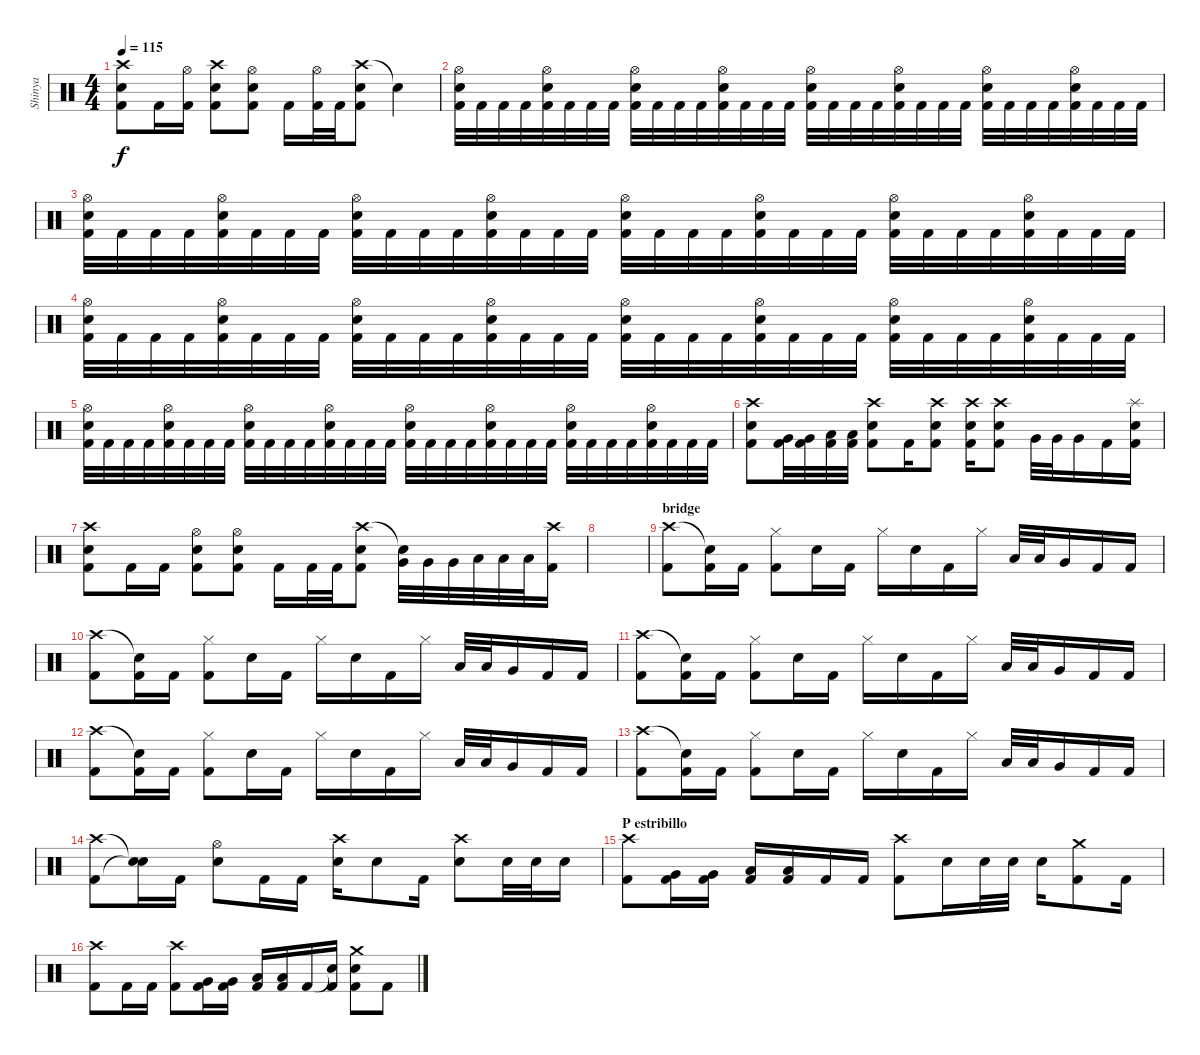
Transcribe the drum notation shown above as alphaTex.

\track ("Shinya" "Shinya") {instrument percussion}
\staff {score}
\articulation defaults
\ts (4 4)
\tempo 115
\clef neutral
\ks c
("Crash high (hit)" "Electric Snare (hit)" "Kick (hit) 2").8{dy f} "Kick (hit) 2".16 ("Hi-Hat (open)" "Kick (hit) 2").16 ("Crash high (hit)" "Electric Snare (hit)" "Kick (hit) 2").8 ("Hi-Hat (open)" "Electric Snare (hit)" "Kick (hit) 2").8 "Kick (hit) 2".16 ("Hi-Hat (open)" "Kick (hit) 2").32 "Kick (hit) 2".32 ("Crash high (hit)" "Electric Snare (hit)" "Kick (hit) 2").8 "Snare (hit)"{t}.4 |
("Hi-Hat (open)" "Electric Snare (hit)" "Kick (hit) 2").32 "Kick (hit) 2".32 "Kick (hit) 2".32 "Kick (hit) 2".32 ("Hi-Hat (open)" "Electric Snare (hit)" "Kick (hit) 2").32 "Kick (hit) 2".32 "Kick (hit) 2".32 "Kick (hit) 2".32 ("Hi-Hat (open)" "Electric Snare (hit)" "Kick (hit) 2").32 "Kick (hit) 2".32 "Kick (hit) 2".32 "Kick (hit) 2".32 ("Hi-Hat (open)" "Electric Snare (hit)" "Kick (hit) 2").32 "Kick (hit) 2".32 "Kick (hit) 2".32 "Kick (hit) 2".32 ("Hi-Hat (open)" "Electric Snare (hit)" "Kick (hit) 2").32 "Kick (hit) 2".32 "Kick (hit) 2".32 "Kick (hit) 2".32 ("Hi-Hat (open)" "Electric Snare (hit)" "Kick (hit) 2").32 "Kick (hit) 2".32 "Kick (hit) 2".32 "Kick (hit) 2".32 ("Hi-Hat (open)" "Electric Snare (hit)" "Kick (hit) 2").32 "Kick (hit) 2".32 "Kick (hit) 2".32 "Kick (hit) 2".32 ("Hi-Hat (open)" "Electric Snare (hit)" "Kick (hit) 2").32 "Kick (hit) 2".32 "Kick (hit) 2".32 "Kick (hit) 2".32 |
("Hi-Hat (open)" "Electric Snare (hit)" "Kick (hit) 2").32 "Kick (hit) 2".32 "Kick (hit) 2".32 "Kick (hit) 2".32 ("Hi-Hat (open)" "Electric Snare (hit)" "Kick (hit) 2").32 "Kick (hit) 2".32 "Kick (hit) 2".32 "Kick (hit) 2".32 ("Hi-Hat (open)" "Electric Snare (hit)" "Kick (hit) 2").32 "Kick (hit) 2".32 "Kick (hit) 2".32 "Kick (hit) 2".32 ("Hi-Hat (open)" "Electric Snare (hit)" "Kick (hit) 2").32 "Kick (hit) 2".32 "Kick (hit) 2".32 "Kick (hit) 2".32 ("Hi-Hat (open)" "Electric Snare (hit)" "Kick (hit) 2").32 "Kick (hit) 2".32 "Kick (hit) 2".32 "Kick (hit) 2".32 ("Hi-Hat (open)" "Electric Snare (hit)" "Kick (hit) 2").32 "Kick (hit) 2".32 "Kick (hit) 2".32 "Kick (hit) 2".32 ("Hi-Hat (open)" "Electric Snare (hit)" "Kick (hit) 2").32 "Kick (hit) 2".32 "Kick (hit) 2".32 "Kick (hit) 2".32 ("Hi-Hat (open)" "Electric Snare (hit)" "Kick (hit) 2").32 "Kick (hit) 2".32 "Kick (hit) 2".32 "Kick (hit) 2".32 |
("Hi-Hat (open)" "Electric Snare (hit)" "Kick (hit) 2").32 "Kick (hit) 2".32 "Kick (hit) 2".32 "Kick (hit) 2".32 ("Hi-Hat (open)" "Electric Snare (hit)" "Kick (hit) 2").32 "Kick (hit) 2".32 "Kick (hit) 2".32 "Kick (hit) 2".32 ("Hi-Hat (open)" "Electric Snare (hit)" "Kick (hit) 2").32 "Kick (hit) 2".32 "Kick (hit) 2".32 "Kick (hit) 2".32 ("Hi-Hat (open)" "Electric Snare (hit)" "Kick (hit) 2").32 "Kick (hit) 2".32 "Kick (hit) 2".32 "Kick (hit) 2".32 ("Hi-Hat (open)" "Electric Snare (hit)" "Kick (hit) 2").32 "Kick (hit) 2".32 "Kick (hit) 2".32 "Kick (hit) 2".32 ("Hi-Hat (open)" "Electric Snare (hit)" "Kick (hit) 2").32 "Kick (hit) 2".32 "Kick (hit) 2".32 "Kick (hit) 2".32 ("Hi-Hat (open)" "Electric Snare (hit)" "Kick (hit) 2").32 "Kick (hit) 2".32 "Kick (hit) 2".32 "Kick (hit) 2".32 ("Hi-Hat (open)" "Electric Snare (hit)" "Kick (hit) 2").32 "Kick (hit) 2".32 "Kick (hit) 2".32 "Kick (hit) 2".32 |
("Hi-Hat (open)" "Electric Snare (hit)" "Kick (hit) 2").32 "Kick (hit) 2".32 "Kick (hit) 2".32 "Kick (hit) 2".32 ("Hi-Hat (open)" "Electric Snare (hit)" "Kick (hit) 2").32 "Kick (hit) 2".32 "Kick (hit) 2".32 "Kick (hit) 2".32 ("Hi-Hat (open)" "Electric Snare (hit)" "Kick (hit) 2").32 "Kick (hit) 2".32 "Kick (hit) 2".32 "Kick (hit) 2".32 ("Hi-Hat (open)" "Electric Snare (hit)" "Kick (hit) 2").32 "Kick (hit) 2".32 "Kick (hit) 2".32 "Kick (hit) 2".32 ("Hi-Hat (open)" "Electric Snare (hit)" "Kick (hit) 2").32 "Kick (hit) 2".32 "Kick (hit) 2".32 "Kick (hit) 2".32 ("Hi-Hat (open)" "Electric Snare (hit)" "Kick (hit) 2").32 "Kick (hit) 2".32 "Kick (hit) 2".32 "Kick (hit) 2".32 ("Hi-Hat (open)" "Electric Snare (hit)" "Kick (hit) 2").32 "Kick (hit) 2".32 "Kick (hit) 2".32 "Kick (hit) 2".32 ("Hi-Hat (open)" "Electric Snare (hit)" "Kick (hit) 2").32 "Kick (hit) 2".32 "Kick (hit) 2".32 "Kick (hit) 2".32 |
("Crash high (hit)" "Electric Snare (hit)" "Kick (hit) 2").8 ("Very Low Tom (hit)" "Kick (hit) 2").32 ("Very Low Tom (hit)" "Kick (hit) 2").32 ("Low Floor Tom (hit)" "Kick (hit) 2").32 ("Low Floor Tom (hit)" "Kick (hit) 2").32 ("Crash high (hit)" "Electric Snare (hit)" "Kick (hit) 2").8 "Kick (hit) 2".16 ("Crash high (hit)" "Electric Snare (hit)" "Kick (hit) 2").8 ("Crash high (hit)" "Electric Snare (hit)" "Kick (hit) 2").16 ("Crash high (hit)" "Electric Snare (hit)" "Kick (hit) 2").8 "Very Low Tom (hit)".32 "Very Low Tom (hit)".32 "Very Low Tom (hit)".16 "Kick (hit) 2".16 ("Splash (hit)" "Electric Snare (hit)" "Kick (hit) 2").16 |
("Crash high (hit)" "Electric Snare (hit)" "Kick (hit) 2").8 "Kick (hit) 2".16 "Kick (hit) 2".16 ("Hi-Hat (open)" "Electric Snare (hit)" "Kick (hit) 2").8 ("Hi-Hat (open)" "Electric Snare (hit)" "Kick (hit) 2").8 "Kick (hit) 2".16 "Kick (hit) 2".32 "Kick (hit) 2".32 ("Crash high (hit)" "Electric Snare (hit)" "Kick (hit) 2").8 ("Snare (hit)"{t} "Very Low Tom (hit)").32 "Very Low Tom (hit)".32 "Very Low Tom (hit)".32 "Low Floor Tom (hit)".32 "Low Floor Tom (hit)".32 "Low Floor Tom (hit)".32 ("Crash high (hit)" "Kick (hit) 2").16 |
|
\section ("" "bridge")
("Crash high (hit)" "Kick (hit) 2").8 ("Snare (hit)"{t} "Kick (hit) 2").16 "Kick (hit) 2".16 ("Hi-Hat (closed)" "Kick (hit) 2").8 "Electric Snare (hit)".16 "Kick (hit) 2".16 "Hi-Hat (closed)".16 "Electric Snare (hit)".16 "Kick (hit) 2".16 "Hi-Hat (closed)".16 "Low Tom (hit)".32 "Low Tom (hit)".32 "Very Low Tom (hit)".16 "Kick (hit) 2".16 "Kick (hit) 2".16 |
("Crash high (hit)" "Kick (hit) 2").8 ("Snare (hit)"{t} "Kick (hit) 2").16 "Kick (hit) 2".16 ("Hi-Hat (closed)" "Kick (hit) 2").8 "Electric Snare (hit)".16 "Kick (hit) 2".16 "Hi-Hat (closed)".16 "Electric Snare (hit)".16 "Kick (hit) 2".16 "Hi-Hat (closed)".16 "Low Tom (hit)".32 "Low Tom (hit)".32 "Very Low Tom (hit)".16 "Kick (hit) 2".16 "Kick (hit) 2".16 |
("Crash high (hit)" "Kick (hit) 2").8 ("Snare (hit)"{t} "Kick (hit) 2").16 "Kick (hit) 2".16 ("Hi-Hat (closed)" "Kick (hit) 2").8 "Electric Snare (hit)".16 "Kick (hit) 2".16 "Hi-Hat (closed)".16 "Electric Snare (hit)".16 "Kick (hit) 2".16 "Hi-Hat (closed)".16 "Low Tom (hit)".32 "Low Tom (hit)".32 "Very Low Tom (hit)".16 "Kick (hit) 2".16 "Kick (hit) 2".16 |
("Crash high (hit)" "Kick (hit) 2").8 ("Snare (hit)"{t} "Kick (hit) 2").16 "Kick (hit) 2".16 ("Hi-Hat (closed)" "Kick (hit) 2").8 "Electric Snare (hit)".16 "Kick (hit) 2".16 "Hi-Hat (closed)".16 "Electric Snare (hit)".16 "Kick (hit) 2".16 "Hi-Hat (closed)".16 "Low Tom (hit)".32 "Low Tom (hit)".32 "Very Low Tom (hit)".16 "Kick (hit) 2".16 "Kick (hit) 2".16 |
("Crash high (hit)" "Kick (hit) 2").8 ("Snare (hit)"{t} "Kick (hit) 2").16 "Kick (hit) 2".16 ("Hi-Hat (closed)" "Kick (hit) 2").8 "Electric Snare (hit)".16 "Kick (hit) 2".16 "Hi-Hat (closed)".16 "Electric Snare (hit)".16 "Kick (hit) 2".16 "Hi-Hat (closed)".16 "Low Tom (hit)".32 "Low Tom (hit)".32 "Very Low Tom (hit)".16 "Kick (hit) 2".16 "Kick (hit) 2".16 |
("Crash high (hit)" "Kick (hit) 2").8 ("Snare (hit)"{t} "Snare (hit)"{t}).16 "Kick (hit) 2".16 ("Hi-Hat (open)" "Electric Snare (hit)").8 "Kick (hit) 2".16 "Kick (hit) 2".16 ("Crash high (hit)" "Electric Snare (hit)").16 "Electric Snare (hit)".8 "Kick (hit) 2".16 ("Crash high (hit)" "Electric Snare (hit)").8 "Electric Snare (hit)".32 "Electric Snare (hit)".32 "Electric Snare (hit)".16 |
\section ("" "P estribillo")
("Crash high (hit)" "Kick (hit) 2").8 ("Very Low Tom (hit)" "Kick (hit) 2").16 ("Very Low Tom (hit)" "Kick (hit) 2").16 ("Low Floor Tom (hit)" "Kick (hit) 2").16 ("Low Floor Tom (hit)" "Kick (hit) 2").16 "Kick (hit) 2".16 "Kick (hit) 2".16 ("Crash high (hit)" "Kick (hit) 2").8 "Electric Snare (hit)".16 "Electric Snare (hit)".32 "Electric Snare (hit)".32 "Electric Snare (hit)".16 ("Crash medium (hit)" "Kick (hit) 2").8 "Kick (hit) 2".16 |
("Crash high (hit)" "Kick (hit) 2").8 "Kick (hit) 2".16 "Kick (hit) 2".16 ("Crash high (hit)" "Kick (hit) 2").8 ("Very Low Tom (hit)" "Kick (hit) 2").16 ("Very Low Tom (hit)" "Kick (hit) 2").16 ("Low Floor Tom (hit)" "Kick (hit) 2").16 ("Low Floor Tom (hit)" "Kick (hit) 2").16 "Kick (hit) 2".16 ("Snare (hit)"{t} "Kick (hit) 2").16 ("Crash medium (hit)" "Electric Snare (hit)" "Kick (hit) 2").8 "Kick (hit) 2".8
